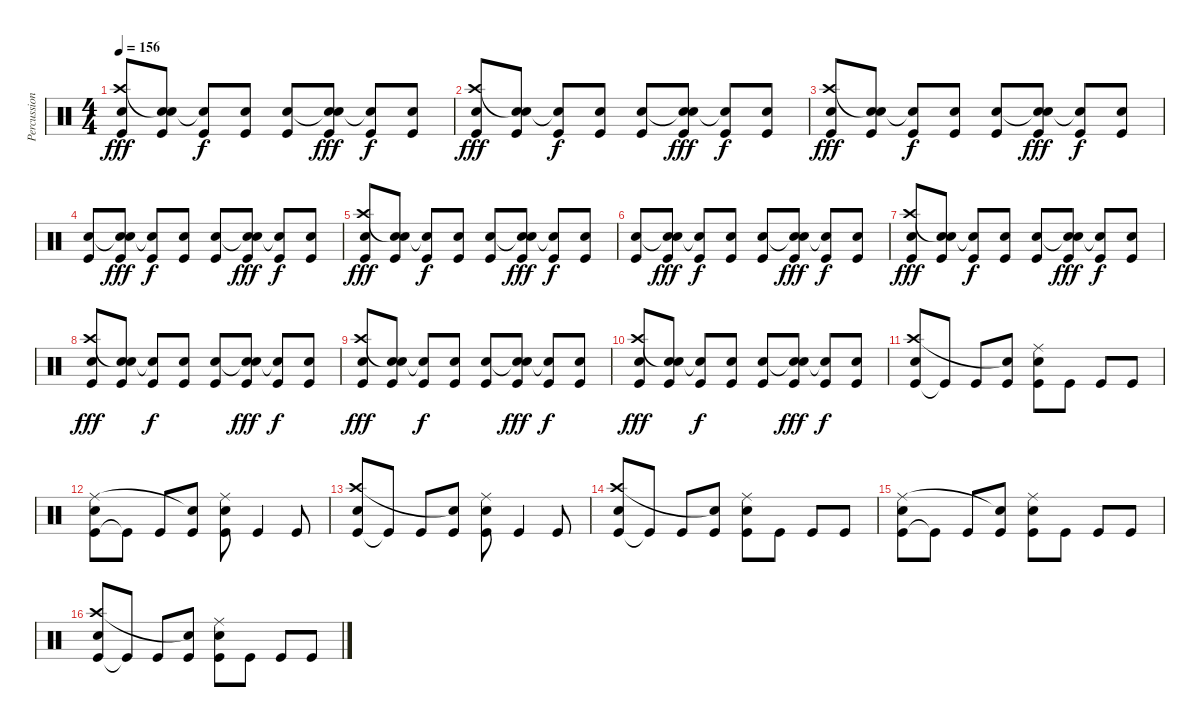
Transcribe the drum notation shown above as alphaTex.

\track ("Percussion" "Percussion") {instrument percussion}
\staff {score}
\articulation defaults
\ts (4 4)
\tempo 156
\clef neutral
\ks c
("Kick (hit)" "Crash high (hit)" "Electric Snare (hit)").8{dy fff} ("Kick (hit)" "Snare (hit)"{t} "Electric Snare (hit)").8 ("Kick (hit)" "Electric Snare (hit)"{t}).8{dy f} ("Kick (hit)" "Electric Snare (hit)").8 ("Kick (hit)" "Electric Snare (hit)").8 ("Kick (hit)" "Snare (hit)"{t} "Electric Snare (hit)").8{dy fff} ("Kick (hit)" "Electric Snare (hit)"{t}).8{dy f} ("Kick (hit)" "Electric Snare (hit)").8 |
("Kick (hit)" "Crash high (hit)" "Electric Snare (hit)").8{dy fff} ("Kick (hit)" "Snare (hit)"{t} "Electric Snare (hit)").8 ("Kick (hit)" "Electric Snare (hit)"{t}).8{dy f} ("Kick (hit)" "Electric Snare (hit)").8 ("Kick (hit)" "Electric Snare (hit)").8 ("Kick (hit)" "Snare (hit)"{t} "Electric Snare (hit)").8{dy fff} ("Kick (hit)" "Electric Snare (hit)"{t}).8{dy f} ("Kick (hit)" "Electric Snare (hit)").8 |
("Kick (hit)" "Crash high (hit)" "Electric Snare (hit)").8{dy fff} ("Kick (hit)" "Snare (hit)"{t} "Electric Snare (hit)").8 ("Kick (hit)" "Electric Snare (hit)"{t}).8{dy f} ("Kick (hit)" "Electric Snare (hit)").8 ("Kick (hit)" "Electric Snare (hit)").8 ("Kick (hit)" "Snare (hit)"{t} "Electric Snare (hit)").8{dy fff} ("Kick (hit)" "Electric Snare (hit)"{t}).8{dy f} ("Kick (hit)" "Electric Snare (hit)").8 |
("Kick (hit)" "Electric Snare (hit)").8 ("Kick (hit)" "Snare (hit)"{t} "Electric Snare (hit)").8{dy fff} ("Kick (hit)" "Electric Snare (hit)"{t}).8{dy f} ("Kick (hit)" "Electric Snare (hit)").8 ("Kick (hit)" "Electric Snare (hit)").8 ("Kick (hit)" "Snare (hit)"{t} "Electric Snare (hit)").8{dy fff} ("Kick (hit)" "Electric Snare (hit)"{t}).8{dy f} ("Kick (hit)" "Electric Snare (hit)").8 |
("Kick (hit)" "Crash high (hit)" "Electric Snare (hit)").8{dy fff} ("Kick (hit)" "Snare (hit)"{t} "Electric Snare (hit)").8 ("Kick (hit)" "Electric Snare (hit)"{t}).8{dy f} ("Kick (hit)" "Electric Snare (hit)").8 ("Kick (hit)" "Electric Snare (hit)").8 ("Kick (hit)" "Snare (hit)"{t} "Electric Snare (hit)").8{dy fff} ("Kick (hit)" "Electric Snare (hit)"{t}).8{dy f} ("Kick (hit)" "Electric Snare (hit)").8 |
("Kick (hit)" "Electric Snare (hit)").8 ("Kick (hit)" "Snare (hit)"{t} "Electric Snare (hit)").8{dy fff} ("Kick (hit)" "Electric Snare (hit)"{t}).8{dy f} ("Kick (hit)" "Electric Snare (hit)").8 ("Kick (hit)" "Electric Snare (hit)").8 ("Kick (hit)" "Snare (hit)"{t} "Electric Snare (hit)").8{dy fff} ("Kick (hit)" "Electric Snare (hit)"{t}).8{dy f} ("Kick (hit)" "Electric Snare (hit)").8 |
("Kick (hit)" "Crash high (hit)" "Electric Snare (hit)").8{dy fff} ("Kick (hit)" "Snare (hit)"{t} "Electric Snare (hit)").8 ("Kick (hit)" "Electric Snare (hit)"{t}).8{dy f} ("Kick (hit)" "Electric Snare (hit)").8 ("Kick (hit)" "Electric Snare (hit)").8 ("Kick (hit)" "Snare (hit)"{t} "Electric Snare (hit)").8{dy fff} ("Kick (hit)" "Electric Snare (hit)"{t}).8{dy f} ("Kick (hit)" "Electric Snare (hit)").8 |
("Kick (hit)" "Crash high (hit)" "Electric Snare (hit)").8{dy fff} ("Kick (hit)" "Snare (hit)"{t} "Electric Snare (hit)").8 ("Kick (hit)" "Electric Snare (hit)"{t}).8{dy f} ("Kick (hit)" "Electric Snare (hit)").8 ("Kick (hit)" "Electric Snare (hit)").8 ("Kick (hit)" "Snare (hit)"{t} "Electric Snare (hit)").8{dy fff} ("Kick (hit)" "Electric Snare (hit)"{t}).8{dy f} ("Kick (hit)" "Electric Snare (hit)").8 |
("Kick (hit)" "Crash high (hit)" "Electric Snare (hit)").8{dy fff} ("Kick (hit)" "Snare (hit)"{t} "Electric Snare (hit)").8 ("Kick (hit)" "Electric Snare (hit)"{t}).8{dy f} ("Kick (hit)" "Electric Snare (hit)").8 ("Kick (hit)" "Electric Snare (hit)").8 ("Kick (hit)" "Snare (hit)"{t} "Electric Snare (hit)").8{dy fff} ("Kick (hit)" "Electric Snare (hit)"{t}).8{dy f} ("Kick (hit)" "Electric Snare (hit)").8 |
("Kick (hit)" "Crash high (hit)" "Electric Snare (hit)").8{dy fff} ("Kick (hit)" "Snare (hit)"{t} "Electric Snare (hit)").8 ("Kick (hit)" "Electric Snare (hit)"{t}).8{dy f} ("Kick (hit)" "Electric Snare (hit)").8 ("Kick (hit)" "Electric Snare (hit)").8 ("Kick (hit)" "Snare (hit)"{t} "Electric Snare (hit)").8{dy fff} ("Kick (hit)" "Electric Snare (hit)"{t}).8{dy f} ("Kick (hit)" "Electric Snare (hit)").8 |
("Kick (hit)" "Crash high (hit)" "Electric Snare (hit)").8 "Kick (hit)"{t}.8 "Kick (hit)".8 ("Kick (hit)" "Snare (hit)"{t}).8 ("Kick (hit)" "Ride (middle)" "Electric Snare (hit)").8 "Kick (hit)".8 "Kick (hit)".8 "Kick (hit)".8 |
("Kick (hit)" "Ride (middle)" "Electric Snare (hit)").8 "Kick (hit)"{t}.8 "Kick (hit)".8 ("Kick (hit)" "Snare (hit)"{t}).8 ("Kick (hit)" "Ride (middle)" "Electric Snare (hit)").8 "Kick (hit)".4 "Kick (hit)".8 |
("Kick (hit)" "Crash high (hit)" "Electric Snare (hit)").8 "Kick (hit)"{t}.8 "Kick (hit)".8 ("Kick (hit)" "Snare (hit)"{t}).8 ("Kick (hit)" "Ride (middle)" "Electric Snare (hit)").8 "Kick (hit)".4 "Kick (hit)".8 |
("Kick (hit)" "Crash high (hit)" "Electric Snare (hit)").8 "Kick (hit)"{t}.8 "Kick (hit)".8 ("Kick (hit)" "Snare (hit)"{t}).8 ("Kick (hit)" "Ride (middle)" "Electric Snare (hit)").8 "Kick (hit)".8 "Kick (hit)".8 "Kick (hit)".8 |
("Kick (hit)" "Ride (middle)" "Electric Snare (hit)").8 "Kick (hit)"{t}.8 "Kick (hit)".8 ("Kick (hit)" "Snare (hit)"{t}).8 ("Kick (hit)" "Ride (middle)" "Electric Snare (hit)").8 "Kick (hit)".8 "Kick (hit)".8 "Kick (hit)".8 |
("Kick (hit)" "Crash high (hit)" "Electric Snare (hit)").8 "Kick (hit)"{t}.8 "Kick (hit)".8 ("Kick (hit)" "Snare (hit)"{t}).8 ("Kick (hit)" "Ride (middle)" "Electric Snare (hit)").8 "Kick (hit)".8 "Kick (hit)".8 "Kick (hit)".8
